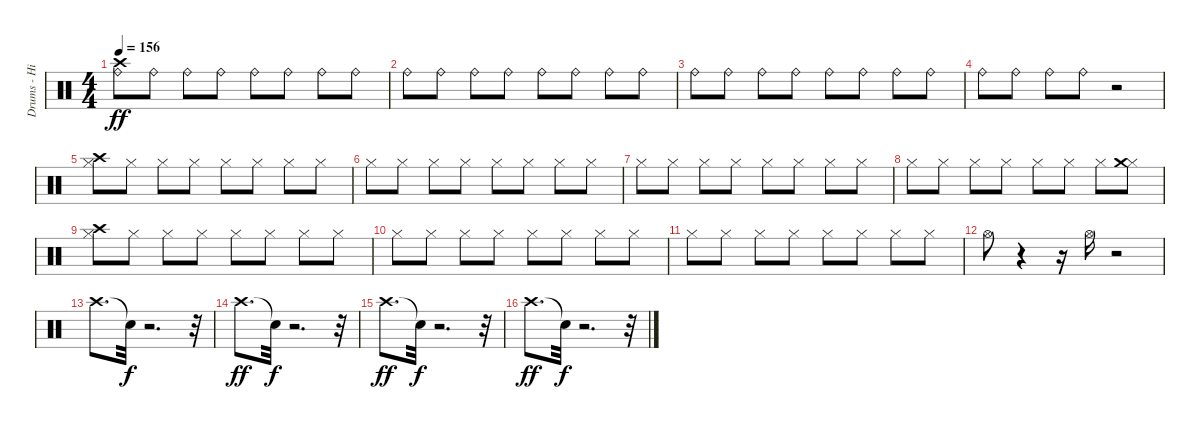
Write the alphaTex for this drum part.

\track ("Drums - Hi Hat/Cymbals" "Drums - Hi") {instrument percussion}
\staff {score}
\articulation defaults
\ts (4 4)
\tempo 156
\clef neutral
\ks c
("Crash high (hit)" "Ride (bell)").8{dy ff} "Ride (bell)".8 "Ride (bell)".8 "Ride (bell)".8 "Ride (bell)".8 "Ride (bell)".8 "Ride (bell)".8 "Ride (bell)".8 |
"Ride (bell)".8 "Ride (bell)".8 "Ride (bell)".8 "Ride (bell)".8 "Ride (bell)".8 "Ride (bell)".8 "Ride (bell)".8 "Ride (bell)".8 |
"Ride (bell)".8 "Ride (bell)".8 "Ride (bell)".8 "Ride (bell)".8 "Ride (bell)".8 "Ride (bell)".8 "Ride (bell)".8 "Ride (bell)".8 |
"Ride (bell)".8 "Ride (bell)".8 "Ride (bell)".8 "Ride (bell)".8 r.2 |
("Hi-Hat (closed)" "Crash high (hit)").8 "Hi-Hat (closed)".8 "Hi-Hat (closed)".8 "Hi-Hat (closed)".8 "Hi-Hat (closed)".8 "Hi-Hat (closed)".8 "Hi-Hat (closed)".8 "Hi-Hat (closed)".8 |
"Hi-Hat (closed)".8 "Hi-Hat (closed)".8 "Hi-Hat (closed)".8 "Hi-Hat (closed)".8 "Hi-Hat (closed)".8 "Hi-Hat (closed)".8 "Hi-Hat (closed)".8 "Hi-Hat (closed)".8 |
"Hi-Hat (closed)".8 "Hi-Hat (closed)".8 "Hi-Hat (closed)".8 "Hi-Hat (closed)".8 "Hi-Hat (closed)".8 "Hi-Hat (closed)".8 "Hi-Hat (closed)".8 "Hi-Hat (closed)".8 |
"Hi-Hat (closed)".8 "Hi-Hat (closed)".8 "Hi-Hat (closed)".8 "Hi-Hat (closed)".8 "Hi-Hat (closed)".8 "Hi-Hat (closed)".8 "Hi-Hat (closed)".8 ("Hi-Hat (closed)" "Crash medium (hit)").8 |
("Hi-Hat (closed)" "Crash high (hit)").8 "Hi-Hat (closed)".8 "Hi-Hat (closed)".8 "Hi-Hat (closed)".8 "Hi-Hat (closed)".8 "Hi-Hat (closed)".8 "Hi-Hat (closed)".8 "Hi-Hat (closed)".8 |
"Hi-Hat (closed)".8 "Hi-Hat (closed)".8 "Hi-Hat (closed)".8 "Hi-Hat (closed)".8 "Hi-Hat (closed)".8 "Hi-Hat (closed)".8 "Hi-Hat (closed)".8 "Hi-Hat (closed)".8 |
"Hi-Hat (closed)".8 "Hi-Hat (closed)".8 "Hi-Hat (closed)".8 "Hi-Hat (closed)".8 "Hi-Hat (closed)".8 "Hi-Hat (closed)".8 "Hi-Hat (closed)".8 "Hi-Hat (closed)".8 |
"Hi-Hat (open)".8 r.4 r.16 "Hi-Hat (open)".16 r.2 |
"Crash high (hit)".8{d} "Snare (hit)"{t}.32{dy f} r.2{d} r.32 |
"Crash high (hit)".8{d dy ff} "Snare (hit)"{t}.32{dy f} r.2{d} r.32 |
"Crash high (hit)".8{d dy ff} "Snare (hit)"{t}.32{dy f} r.2{d} r.32 |
"Crash high (hit)".8{d dy ff} "Snare (hit)"{t}.32{dy f} r.2{d} r.32
